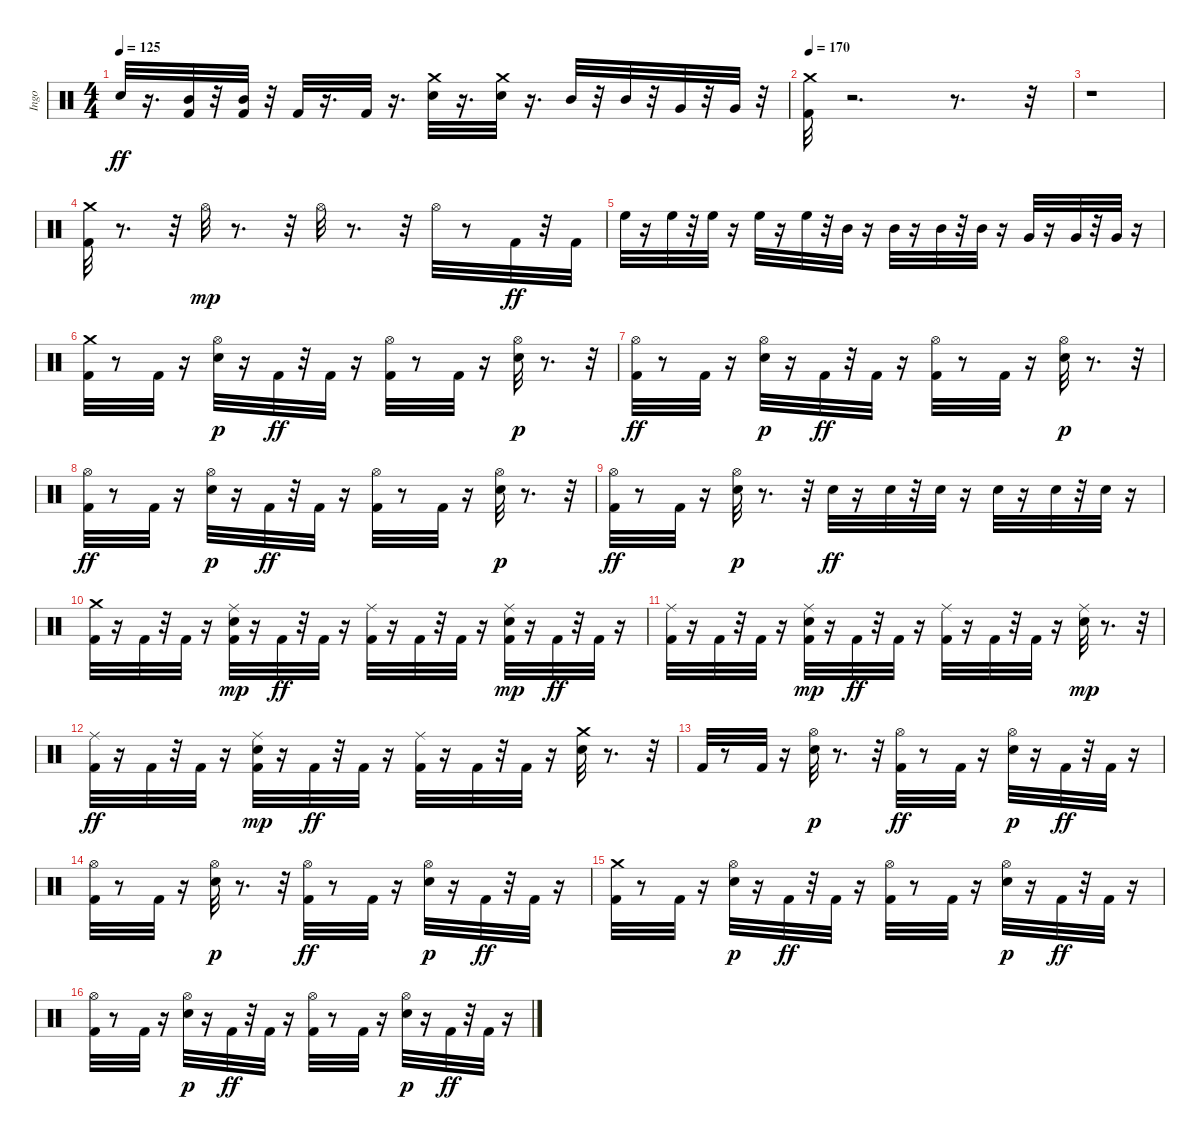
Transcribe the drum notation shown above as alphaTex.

\track ("Ingo" "Ingo") {instrument percussion}
\staff {score}
\articulation defaults
\ts (4 4)
\tempo 125
\clef neutral
\ks c "Snare (hit) 2".32{dy ff}
r.16{d} ("Mid Tom (hit)" "Kick (hit) 2").32 r.32 ("Mid Tom (hit)" "Kick (hit) 2").32 r.32 "Kick (hit) 2".32 r.16{d} "Kick (hit) 2".32 r.16{d} ("Crash medium (hit)" "Snare (hit) 2").32 r.16{d} ("Crash medium (hit)" "Snare (hit) 2").32 r.16{d} "Mid Tom (hit)".32 r.32 "Mid Tom (hit)".32 r.32 "Very Low Tom (hit)".32 r.32 "Very Low Tom (hit)".32 r.32 |
\tempo 170
("Crash medium (hit)" "Kick (hit) 2").32 r.2{d} r.8{d} r.32 |
r.1 |
("Kick (hit) 2" "Crash medium (hit)").32 r.8{d} r.32 "Hi-Hat (open)".32{dy mp} r.8{d} r.32 "Hi-Hat (open)".32 r.8{d} r.32 "Hi-Hat (open)".32 r.8 "Kick (hit) 2".32{dy ff} r.32 "Kick (hit) 2".32 |
"High Floor Tom (hit)".32 r.16 "High Floor Tom (hit)".32 r.32 "High Floor Tom (hit)".32 r.16 "High Floor Tom (hit)".32 r.16 "High Floor Tom (hit)".32 r.32 "Mid Tom (hit)".32 r.16 "Mid Tom (hit)".32 r.16 "Mid Tom (hit)".32 r.32 "Mid Tom (hit)".32 r.16 "Very Low Tom (hit)".32 r.16 "Very Low Tom (hit)".32 r.32 "Very Low Tom (hit)".32 r.16 |
("Crash medium (hit)" "Kick (hit) 2").32 r.8 "Kick (hit) 2".32 r.16 ("Snare (hit) 2" "Hi-Hat (open)").32{dy p} r.16 "Kick (hit) 2".32{dy ff} r.32 "Kick (hit) 2".32 r.16 ("Hi-Hat (open)" "Kick (hit) 2").32 r.8 "Kick (hit) 2".32 r.16 ("Snare (hit) 2" "Hi-Hat (open)").32{dy p} r.8{d} r.32 |
("Hi-Hat (open)" "Kick (hit) 2").32{dy ff} r.8 "Kick (hit) 2".32 r.16 ("Snare (hit) 2" "Hi-Hat (open)").32{dy p} r.16 "Kick (hit) 2".32{dy ff} r.32 "Kick (hit) 2".32 r.16 ("Hi-Hat (open)" "Kick (hit) 2").32 r.8 "Kick (hit) 2".32 r.16 ("Snare (hit) 2" "Hi-Hat (open)").32{dy p} r.8{d} r.32 |
("Hi-Hat (open)" "Kick (hit) 2").32{dy ff} r.8 "Kick (hit) 2".32 r.16 ("Snare (hit) 2" "Hi-Hat (open)").32{dy p} r.16 "Kick (hit) 2".32{dy ff} r.32 "Kick (hit) 2".32 r.16 ("Hi-Hat (open)" "Kick (hit) 2").32 r.8 "Kick (hit) 2".32 r.16 ("Snare (hit) 2" "Hi-Hat (open)").32{dy p} r.8{d} r.32 |
("Hi-Hat (open)" "Kick (hit) 2").32{dy ff} r.8 "Kick (hit) 2".32 r.16 ("Snare (hit) 2" "Hi-Hat (open)").32{dy p} r.8{d} r.32 "Snare (hit) 2".32{dy ff} r.16 "Snare (hit) 2".32 r.32 "Snare (hit) 2".32 r.16 "Snare (hit) 2".32 r.16 "Snare (hit) 2".32 r.32 "Snare (hit) 2".32 r.16 |
("Crash medium (hit)" "Kick (hit) 2").32 r.16 "Kick (hit) 2".32 r.32 "Kick (hit) 2".32 r.16 ("Kick (hit) 2" "Snare (hit) 2" "Ride (middle)").32{dy mp} r.16 "Kick (hit) 2".32{dy ff} r.32 "Kick (hit) 2".32 r.16 ("Ride (middle)" "Kick (hit) 2").32 r.16 "Kick (hit) 2".32 r.32 "Kick (hit) 2".32 r.16 ("Kick (hit) 2" "Snare (hit) 2" "Ride (middle)").32{dy mp} r.16 "Kick (hit) 2".32{dy ff} r.32 "Kick (hit) 2".32 r.16 |
("Ride (middle)" "Kick (hit) 2").32 r.16 "Kick (hit) 2".32 r.32 "Kick (hit) 2".32 r.16 ("Kick (hit) 2" "Snare (hit) 2" "Ride (middle)").32{dy mp} r.16 "Kick (hit) 2".32{dy ff} r.32 "Kick (hit) 2".32 r.16 ("Ride (middle)" "Kick (hit) 2").32 r.16 "Kick (hit) 2".32 r.32 "Kick (hit) 2".32 r.16 ("Snare (hit) 2" "Ride (middle)").32{dy mp} r.8{d} r.32 |
("Ride (middle)" "Kick (hit) 2").32{dy ff} r.16 "Kick (hit) 2".32 r.32 "Kick (hit) 2".32 r.16 ("Kick (hit) 2" "Snare (hit) 2" "Ride (middle)").32{dy mp} r.16 "Kick (hit) 2".32{dy ff} r.32 "Kick (hit) 2".32 r.16 ("Ride (middle)" "Kick (hit) 2").32 r.16 "Kick (hit) 2".32 r.32 "Kick (hit) 2".32 r.16 ("Crash medium (hit)" "Snare (hit) 2").32 r.8{d} r.32 |
"Kick (hit) 2".32 r.8 "Kick (hit) 2".32 r.16 ("Snare (hit) 2" "Hi-Hat (open)").32{dy p} r.8{d} r.32 ("Hi-Hat (open)" "Kick (hit) 2").32{dy ff} r.8 "Kick (hit) 2".32 r.16 ("Snare (hit) 2" "Hi-Hat (open)").32{dy p} r.16 "Kick (hit) 2".32{dy ff} r.32 "Kick (hit) 2".32 r.16 |
("Hi-Hat (open)" "Kick (hit) 2").32 r.8 "Kick (hit) 2".32 r.16 ("Snare (hit) 2" "Hi-Hat (open)").32{dy p} r.8{d} r.32 ("Hi-Hat (open)" "Kick (hit) 2").32{dy ff} r.8 "Kick (hit) 2".32 r.16 ("Snare (hit) 2" "Hi-Hat (open)").32{dy p} r.16 "Kick (hit) 2".32{dy ff} r.32 "Kick (hit) 2".32 r.16 |
("Crash medium (hit)" "Kick (hit) 2").32 r.8 "Kick (hit) 2".32 r.16 ("Snare (hit) 2" "Hi-Hat (open)").32{dy p} r.16 "Kick (hit) 2".32{dy ff} r.32 "Kick (hit) 2".32 r.16 ("Hi-Hat (open)" "Kick (hit) 2").32 r.8 "Kick (hit) 2".32 r.16 ("Snare (hit) 2" "Hi-Hat (open)").32{dy p} r.16 "Kick (hit) 2".32{dy ff} r.32 "Kick (hit) 2".32 r.16 |
("Hi-Hat (open)" "Kick (hit) 2").32 r.8 "Kick (hit) 2".32 r.16 ("Snare (hit) 2" "Hi-Hat (open)").32{dy p} r.16 "Kick (hit) 2".32{dy ff} r.32 "Kick (hit) 2".32 r.16 ("Hi-Hat (open)" "Kick (hit) 2").32 r.8 "Kick (hit) 2".32 r.16 ("Snare (hit) 2" "Hi-Hat (open)").32{dy p} r.16 "Kick (hit) 2".32{dy ff} r.32 "Kick (hit) 2".32 r.16
